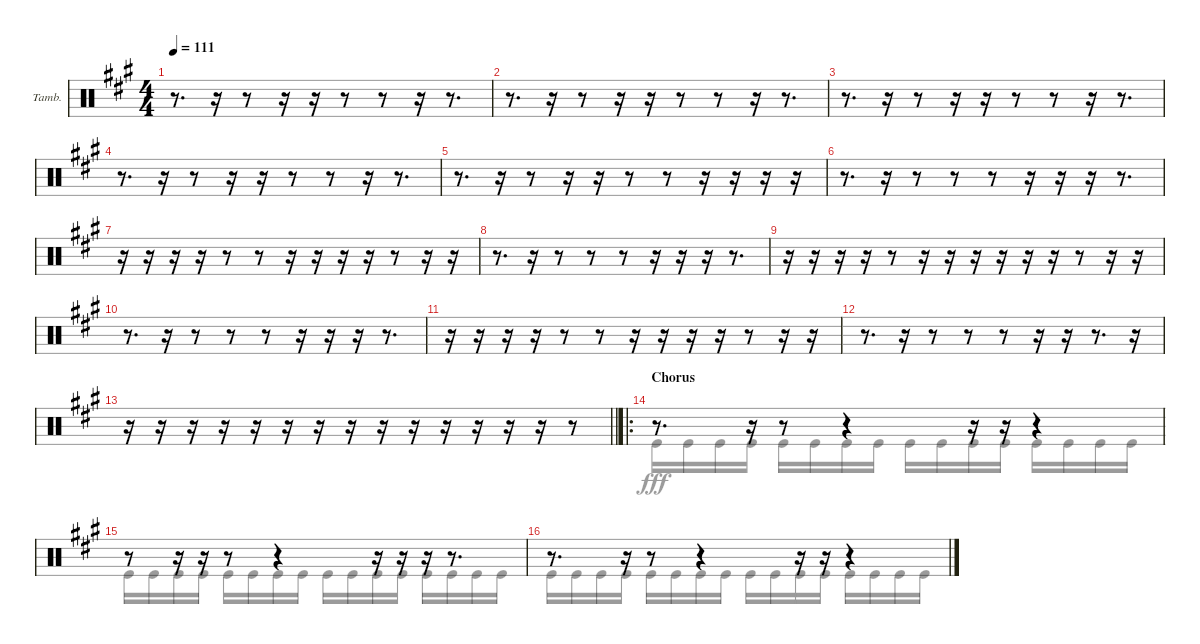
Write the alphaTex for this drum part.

\bracketExtendMode groupsimilarinstruments
\firstSystemTrackNameOrientation horizontal
\otherSystemsTrackNameOrientation horizontal
\track ("Tambourine" "Tamb.") {instrument percussion}
\staff {score}
\articulation defaults
\voice
\ts (4 4)
\tempo 111
\clef neutral
\ks a
r.8{d dy fff} r.16 r.8 r.16 r.16 r.8 r.8 r.16 r.8{d} |
r.8{d} r.16 r.8 r.16 r.16 r.8 r.8 r.16 r.8{d} |
r.8{d} r.16 r.8 r.16 r.16 r.8 r.8 r.16 r.8{d} |
r.8{d} r.16 r.8 r.16 r.16 r.8 r.8 r.16 r.8{d} |
r.8{d} r.16 r.8 r.16 r.16 r.8 r.8 r.16 r.16 r.16 r.16 |
r.8{d} r.16 r.8 r.8 r.8 r.16 r.16 r.16 r.8{d} |
r.16 r.16 r.16 r.16 r.8 r.8 r.16 r.16 r.16 r.16 r.8 r.16 r.16 |
r.8{d} r.16 r.8 r.8 r.8 r.16 r.16 r.16 r.8{d} |
r.16 r.16 r.16 r.16 r.8 r.16 r.16 r.16 r.16 r.16 r.16 r.8 r.16 r.16 |
r.8{d} r.16 r.8 r.8 r.8 r.16 r.16 r.16 r.8{d} |
r.16 r.16 r.16 r.16 r.8 r.8 r.16 r.16 r.16 r.16 r.8 r.16 r.16 |
r.8{d} r.16 r.8 r.8 r.8 r.16 r.16 r.8{d} r.16 |
\barLineRight lightlight
r.16 r.16 r.16 r.16 r.16 r.16 r.16 r.16 r.16 r.16 r.16 r.16 r.16 r.16 r.8 |
\ro
\section ("" "Chorus")
r.8{d} r.16 r.8 r.4 r.16 r.16 r.4 |
r.8 r.16 r.16 r.8 r.4 r.16 r.16 r.16 r.8{d} |
r.8{d} r.16 r.8 r.4 r.16 r.16 r.4
\voice
\clef neutral
\ottava regular
\simile none
\ks a
|
|
|
|
|
|
|
|
|
|
|
|
\barLineRight lightlight
|
"Kick (hit)".16 "Kick (hit)".16 "Kick (hit)".16 "Kick (hit)".16 "Kick (hit)".16 "Kick (hit)".16 "Kick (hit)".16 "Kick (hit)".16 "Kick (hit)".16 "Kick (hit)".16 "Kick (hit)".16 "Kick (hit)".16 "Kick (hit)".16 "Kick (hit)".16 "Kick (hit)".16 "Kick (hit)".16 |
"Kick (hit)".16 "Kick (hit)".16 "Kick (hit)".16 "Kick (hit)".16 "Kick (hit)".16 "Kick (hit)".16 "Kick (hit)".16 "Kick (hit)".16 "Kick (hit)".16 "Kick (hit)".16 "Kick (hit)".16 "Kick (hit)".16 "Kick (hit)".16 "Kick (hit)".16 "Kick (hit)".16 "Kick (hit)".16 |
"Kick (hit)".16 "Kick (hit)".16 "Kick (hit)".16 "Kick (hit)".16 "Kick (hit)".16 "Kick (hit)".16 "Kick (hit)".16 "Kick (hit)".16 "Kick (hit)".16 "Kick (hit)".16 "Kick (hit)".16 "Kick (hit)".16 "Kick (hit)".16 "Kick (hit)".16 "Kick (hit)".16 "Kick (hit)".16
